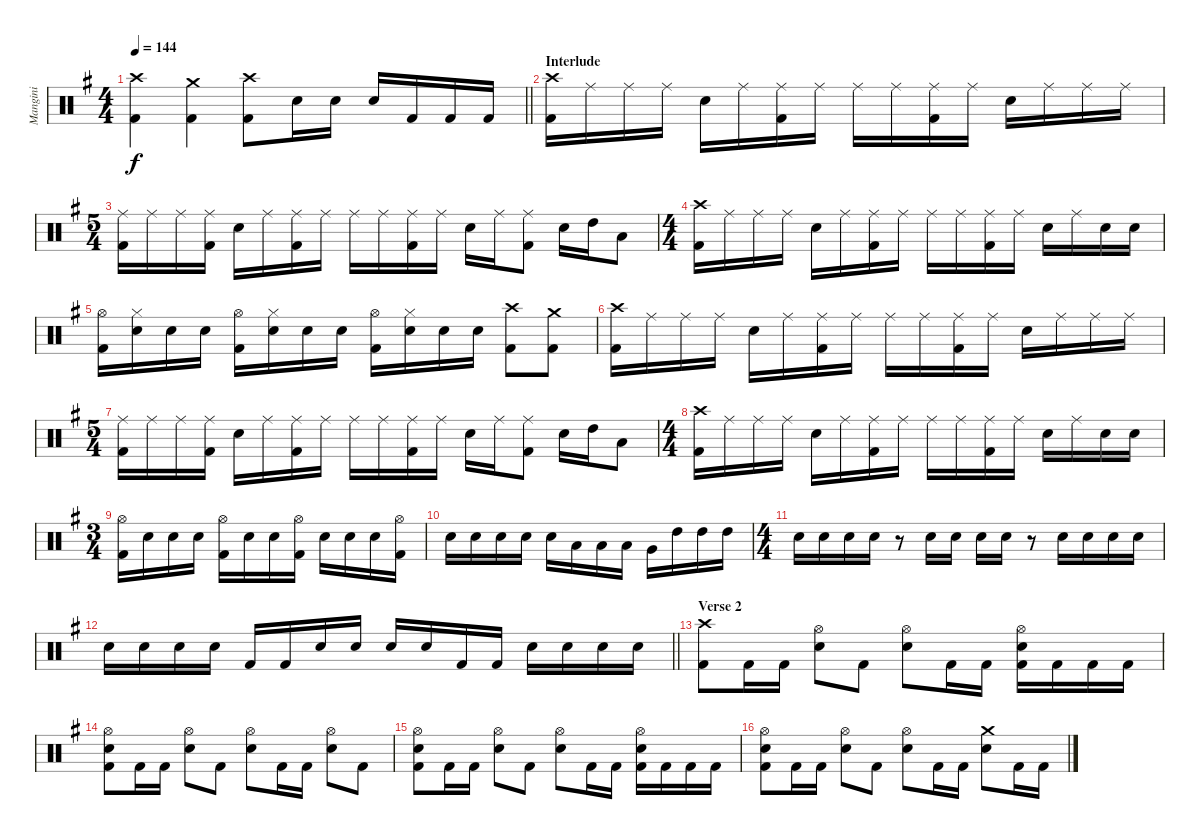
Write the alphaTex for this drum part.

\track ("Mangini" "Mangini") {instrument percussion}
\staff {score}
\articulation defaults
\ts (4 4)
\tempo 144
\clef neutral
\barLineRight lightlight
\ks eminor
("Crash high (hit)" "Kick (hit) 2").4{dy f} ("Crash medium (hit)" "Kick (hit) 2").4 ("Crash high (hit)" "Kick (hit) 2").8 "Snare (hit) 2".16 "Snare (hit) 2".16 "Snare (hit) 2".16 "Kick (hit) 2".16 "Kick (hit) 2".16 "Kick (hit) 2".16 |
\section ("" "Interlude")
("Crash high (hit)" "Kick (hit) 2").16 "Ride (middle)".16 "Ride (middle)".16 "Ride (middle)".16 "Snare (hit) 2".16 "Ride (middle)".16 ("Ride (middle)" "Kick (hit) 2").16 "Ride (middle)".16 "Ride (middle)".16 "Ride (middle)".16 ("Ride (middle)" "Kick (hit) 2").16 "Ride (middle)".16 "Snare (hit) 2".16 "Ride (middle)".16 "Ride (middle)".16 "Ride (middle)".16 |
\ts (5 4)
("Ride (middle)" "Kick (hit) 2").16 "Ride (middle)".16 "Ride (middle)".16 ("Ride (middle)" "Kick (hit) 2").16 "Snare (hit) 2".16 "Ride (middle)".16 ("Ride (middle)" "Kick (hit) 2").16 "Ride (middle)".16 "Ride (middle)".16 "Ride (middle)".16 ("Ride (middle)" "Kick (hit) 2").16 "Ride (middle)".16 "Snare (hit) 2".16 "Ride (middle)".16 ("Ride (middle)" "Kick (hit) 2").8 "Snare (hit) 2".16 "High Tom (hit)".16 "Low Tom (hit)".8 |
\ts (4 4)
("Crash high (hit)" "Kick (hit) 2").16 "Ride (middle)".16 "Ride (middle)".16 "Ride (middle)".16 "Snare (hit) 2".16 "Ride (middle)".16 ("Ride (middle)" "Kick (hit) 2").16 "Ride (middle)".16 "Ride (middle)".16 "Ride (middle)".16 ("Ride (middle)" "Kick (hit) 2").16 "Ride (middle)".16 "Snare (hit) 2".16 "Ride (middle)".16 "Snare (hit) 2".16 "Snare (hit) 2".16 |
("Hi-Hat (open)" "Kick (hit) 2").16 ("Hi-Hat (closed)" "Snare (hit) 2").16 "Snare (hit) 2".16 "Snare (hit) 2".16 ("Hi-Hat (open)" "Kick (hit) 2").16 ("Hi-Hat (closed)" "Snare (hit) 2").16 "Snare (hit) 2".16 "Snare (hit) 2".16 ("Hi-Hat (open)" "Kick (hit) 2").16 ("Hi-Hat (closed)" "Snare (hit) 2").16 "Snare (hit) 2".16 "Snare (hit) 2".16 ("Crash high (hit)" "Kick (hit) 2").8 ("Crash medium (hit)" "Kick (hit) 2").8 |
("Crash high (hit)" "Kick (hit) 2").16 "Ride (middle)".16 "Ride (middle)".16 "Ride (middle)".16 "Snare (hit) 2".16 "Ride (middle)".16 ("Ride (middle)" "Kick (hit) 2").16 "Ride (middle)".16 "Ride (middle)".16 "Ride (middle)".16 ("Ride (middle)" "Kick (hit) 2").16 "Ride (middle)".16 "Snare (hit) 2".16 "Ride (middle)".16 "Ride (middle)".16 "Ride (middle)".16 |
\ts (5 4)
("Ride (middle)" "Kick (hit) 2").16 "Ride (middle)".16 "Ride (middle)".16 ("Ride (middle)" "Kick (hit) 2").16 "Snare (hit) 2".16 "Ride (middle)".16 ("Ride (middle)" "Kick (hit) 2").16 "Ride (middle)".16 "Ride (middle)".16 "Ride (middle)".16 ("Ride (middle)" "Kick (hit) 2").16 "Ride (middle)".16 "Snare (hit) 2".16 "Ride (middle)".16 ("Ride (middle)" "Kick (hit) 2").8 "Snare (hit) 2".16 "High Tom (hit)".16 "Low Tom (hit)".8 |
\ts (4 4)
("Crash high (hit)" "Kick (hit) 2").16 "Ride (middle)".16 "Ride (middle)".16 "Ride (middle)".16 "Snare (hit) 2".16 "Ride (middle)".16 ("Ride (middle)" "Kick (hit) 2").16 "Ride (middle)".16 "Ride (middle)".16 "Ride (middle)".16 ("Ride (middle)" "Kick (hit) 2").16 "Ride (middle)".16 "Snare (hit) 2".16 "Ride (middle)".16 "Snare (hit) 2".16 "Snare (hit) 2".16 |
\ts (3 4)
("Hi-Hat (open)" "Kick (hit) 2").16 "Snare (hit) 2".16 "Snare (hit) 2".16 "Snare (hit) 2".16 ("Hi-Hat (open)" "Kick (hit) 2").16 "Snare (hit) 2".16 "Snare (hit) 2".16 ("Hi-Hat (open)" "Kick (hit) 2").16 "Snare (hit) 2".16 "Snare (hit) 2".16 "Snare (hit) 2".16 ("Hi-Hat (open)" "Kick (hit) 2").16 |
"Snare (hit) 2".16 "Snare (hit) 2".16 "Snare (hit) 2".16 "Snare (hit) 2".16 "Snare (hit) 2".16 "Low Floor Tom (hit)".16 "Low Tom (hit)".16 "Low Floor Tom (hit)".16 "Very Low Tom (hit)".16 "High Tom (hit)".16 "High Tom (hit)".16 "High Tom (hit)".16 |
\ts (4 4)
"Snare (hit) 2".16 "Snare (hit) 2".16 "Snare (hit) 2".16 "Snare (hit) 2".16 r.8 "Snare (hit) 2".16 "Snare (hit) 2".16 "Snare (hit) 2".16 "Snare (hit) 2".16 r.8 "Snare (hit) 2".16 "Snare (hit) 2".16 "Snare (hit) 2".16 "Snare (hit) 2".16 |
\barLineRight lightlight "Snare (hit) 2".16 "Snare (hit) 2".16 "Snare (hit) 2".16 "Snare (hit) 2".16 "Kick (hit) 2".16 "Kick (hit) 2".16 "Snare (hit) 2".16 "Snare (hit) 2".16 "Snare (hit) 2".16 "Snare (hit) 2".16 "Kick (hit) 2".16 "Kick (hit) 2".16 "Snare (hit) 2".16 "Snare (hit) 2".16 "Snare (hit) 2".16 "Snare (hit) 2".16
|
\section ("" "Verse 2")
("Crash high (hit)" "Kick (hit) 2").8 "Kick (hit) 2".16 "Kick (hit) 2".16 ("Hi-Hat (open)" "Snare (hit) 2").8 "Kick (hit) 2".8 ("Hi-Hat (open)" "Snare (hit) 2").8 "Kick (hit) 2".16 "Kick (hit) 2".16 ("Hi-Hat (open)" "Snare (hit) 2" "Kick (hit) 2").16 "Kick (hit) 2".16 "Kick (hit) 2".16 "Kick (hit) 2".16 |
("Hi-Hat (open)" "Snare (hit) 2" "Kick (hit) 2").8 "Kick (hit) 2".16 "Kick (hit) 2".16 ("Hi-Hat (open)" "Snare (hit) 2").8 "Kick (hit) 2".8 ("Hi-Hat (open)" "Snare (hit) 2").8 "Kick (hit) 2".16 "Kick (hit) 2".16 ("Hi-Hat (open)" "Snare (hit) 2").8 "Kick (hit) 2".8 |
("Hi-Hat (open)" "Snare (hit) 2" "Kick (hit) 2").8 "Kick (hit) 2".16 "Kick (hit) 2".16 ("Hi-Hat (open)" "Snare (hit) 2").8 "Kick (hit) 2".8 ("Hi-Hat (open)" "Snare (hit) 2").8 "Kick (hit) 2".16 "Kick (hit) 2".16 ("Hi-Hat (open)" "Snare (hit) 2" "Kick (hit) 2").16 "Kick (hit) 2".16 "Kick (hit) 2".16 "Kick (hit) 2".16 |
("Hi-Hat (open)" "Snare (hit) 2" "Kick (hit) 2").8 "Kick (hit) 2".16 "Kick (hit) 2".16 ("Hi-Hat (open)" "Snare (hit) 2").8 "Kick (hit) 2".8 ("Hi-Hat (open)" "Snare (hit) 2").8 "Kick (hit) 2".16 "Kick (hit) 2".16 ("Crash medium (hit)" "Snare (hit) 2").8 "Kick (hit) 2".16 "Kick (hit) 2".16
